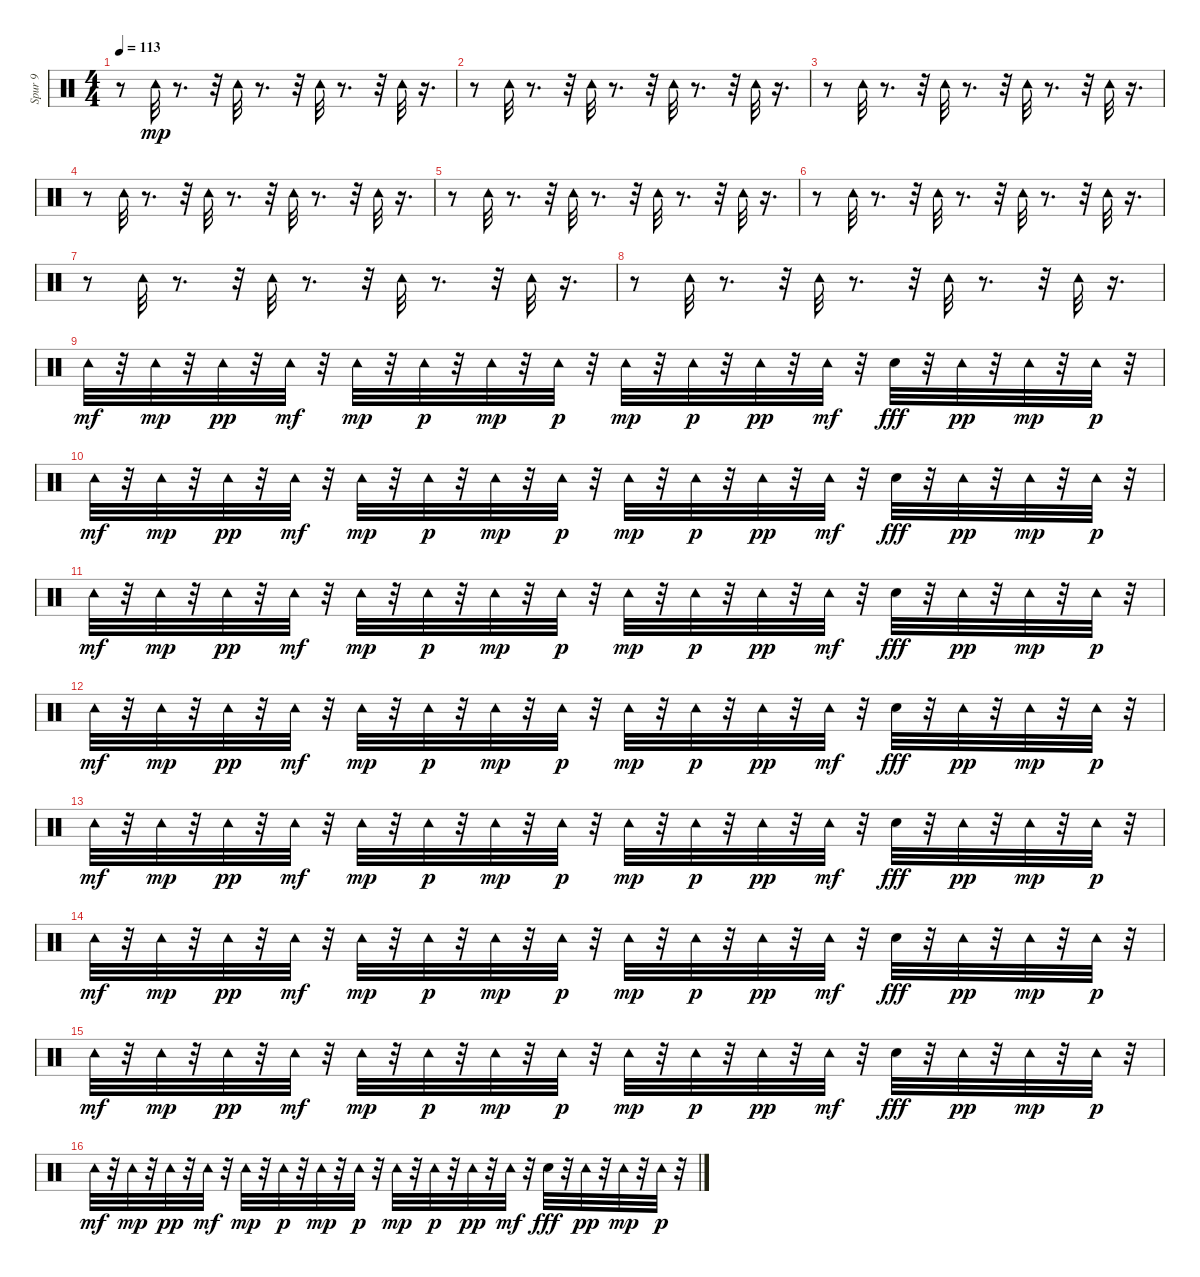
\track ("Spur 9" "Spur 9") {instrument percussion}
\staff {score}
\articulation defaults
\ts (4 4)
\tempo 113
\clef neutral
\ks c
r.8{dy ff} "Tambourine (hit)".32{dy mp} r.8{d} r.32 "Tambourine (hit)".32 r.8{d} r.32 "Tambourine (hit)".32 r.8{d} r.32 "Tambourine (hit)".32 r.16{d} |
r.8 "Tambourine (hit)".32 r.8{d} r.32 "Tambourine (hit)".32 r.8{d} r.32 "Tambourine (hit)".32 r.8{d} r.32 "Tambourine (hit)".32 r.16{d} |
r.8 "Tambourine (hit)".32 r.8{d} r.32 "Tambourine (hit)".32 r.8{d} r.32 "Tambourine (hit)".32 r.8{d} r.32 "Tambourine (hit)".32 r.16{d} |
r.8 "Tambourine (hit)".32 r.8{d} r.32 "Tambourine (hit)".32 r.8{d} r.32 "Tambourine (hit)".32 r.8{d} r.32 "Tambourine (hit)".32 r.16{d} |
r.8 "Tambourine (hit)".32 r.8{d} r.32 "Tambourine (hit)".32 r.8{d} r.32 "Tambourine (hit)".32 r.8{d} r.32 "Tambourine (hit)".32 r.16{d} |
r.8 "Tambourine (hit)".32 r.8{d} r.32 "Tambourine (hit)".32 r.8{d} r.32 "Tambourine (hit)".32 r.8{d} r.32 "Tambourine (hit)".32 r.16{d} |
r.8 "Tambourine (hit)".32 r.8{d} r.32 "Tambourine (hit)".32 r.8{d} r.32 "Tambourine (hit)".32 r.8{d} r.32 "Tambourine (hit)".32 r.16{d} |
r.8 "Tambourine (hit)".32 r.8{d} r.32 "Tambourine (hit)".32 r.8{d} r.32 "Tambourine (hit)".32 r.8{d} r.32 "Tambourine (hit)".32 r.16{d} |
"Tambourine (hit)".32{dy mf} r.32 "Tambourine (hit)".32{dy mp} r.32 "Tambourine (hit)".32{dy pp} r.32 "Tambourine (hit)".32{dy mf} r.32 "Tambourine (hit)".32{dy mp} r.32 "Tambourine (hit)".32{dy p} r.32 "Tambourine (hit)".32{dy mp} r.32 "Tambourine (hit)".32{dy p} r.32 "Tambourine (hit)".32{dy mp} r.32 "Tambourine (hit)".32{dy p} r.32 "Tambourine (hit)".32{dy pp} r.32 "Tambourine (hit)".32{dy mf} r.32 "Hand Clap (hit)".32{dy fff} r.32 "Tambourine (hit)".32{dy pp} r.32 "Tambourine (hit)".32{dy mp} r.32 "Tambourine (hit)".32{dy p} r.32 |
"Tambourine (hit)".32{dy mf} r.32 "Tambourine (hit)".32{dy mp} r.32 "Tambourine (hit)".32{dy pp} r.32 "Tambourine (hit)".32{dy mf} r.32 "Tambourine (hit)".32{dy mp} r.32 "Tambourine (hit)".32{dy p} r.32 "Tambourine (hit)".32{dy mp} r.32 "Tambourine (hit)".32{dy p} r.32 "Tambourine (hit)".32{dy mp} r.32 "Tambourine (hit)".32{dy p} r.32 "Tambourine (hit)".32{dy pp} r.32 "Tambourine (hit)".32{dy mf} r.32 "Hand Clap (hit)".32{dy fff} r.32 "Tambourine (hit)".32{dy pp} r.32 "Tambourine (hit)".32{dy mp} r.32 "Tambourine (hit)".32{dy p} r.32 |
"Tambourine (hit)".32{dy mf} r.32 "Tambourine (hit)".32{dy mp} r.32 "Tambourine (hit)".32{dy pp} r.32 "Tambourine (hit)".32{dy mf} r.32 "Tambourine (hit)".32{dy mp} r.32 "Tambourine (hit)".32{dy p} r.32 "Tambourine (hit)".32{dy mp} r.32 "Tambourine (hit)".32{dy p} r.32 "Tambourine (hit)".32{dy mp} r.32 "Tambourine (hit)".32{dy p} r.32 "Tambourine (hit)".32{dy pp} r.32 "Tambourine (hit)".32{dy mf} r.32 "Hand Clap (hit)".32{dy fff} r.32 "Tambourine (hit)".32{dy pp} r.32 "Tambourine (hit)".32{dy mp} r.32 "Tambourine (hit)".32{dy p} r.32 |
"Tambourine (hit)".32{dy mf} r.32 "Tambourine (hit)".32{dy mp} r.32 "Tambourine (hit)".32{dy pp} r.32 "Tambourine (hit)".32{dy mf} r.32 "Tambourine (hit)".32{dy mp} r.32 "Tambourine (hit)".32{dy p} r.32 "Tambourine (hit)".32{dy mp} r.32 "Tambourine (hit)".32{dy p} r.32 "Tambourine (hit)".32{dy mp} r.32 "Tambourine (hit)".32{dy p} r.32 "Tambourine (hit)".32{dy pp} r.32 "Tambourine (hit)".32{dy mf} r.32 "Hand Clap (hit)".32{dy fff} r.32 "Tambourine (hit)".32{dy pp} r.32 "Tambourine (hit)".32{dy mp} r.32 "Tambourine (hit)".32{dy p} r.32 |
"Tambourine (hit)".32{dy mf} r.32 "Tambourine (hit)".32{dy mp} r.32 "Tambourine (hit)".32{dy pp} r.32 "Tambourine (hit)".32{dy mf} r.32 "Tambourine (hit)".32{dy mp} r.32 "Tambourine (hit)".32{dy p} r.32 "Tambourine (hit)".32{dy mp} r.32 "Tambourine (hit)".32{dy p} r.32 "Tambourine (hit)".32{dy mp} r.32 "Tambourine (hit)".32{dy p} r.32 "Tambourine (hit)".32{dy pp} r.32 "Tambourine (hit)".32{dy mf} r.32 "Hand Clap (hit)".32{dy fff} r.32 "Tambourine (hit)".32{dy pp} r.32 "Tambourine (hit)".32{dy mp} r.32 "Tambourine (hit)".32{dy p} r.32 |
"Tambourine (hit)".32{dy mf} r.32 "Tambourine (hit)".32{dy mp} r.32 "Tambourine (hit)".32{dy pp} r.32 "Tambourine (hit)".32{dy mf} r.32 "Tambourine (hit)".32{dy mp} r.32 "Tambourine (hit)".32{dy p} r.32 "Tambourine (hit)".32{dy mp} r.32 "Tambourine (hit)".32{dy p} r.32 "Tambourine (hit)".32{dy mp} r.32 "Tambourine (hit)".32{dy p} r.32 "Tambourine (hit)".32{dy pp} r.32 "Tambourine (hit)".32{dy mf} r.32 "Hand Clap (hit)".32{dy fff} r.32 "Tambourine (hit)".32{dy pp} r.32 "Tambourine (hit)".32{dy mp} r.32 "Tambourine (hit)".32{dy p} r.32 |
"Tambourine (hit)".32{dy mf} r.32 "Tambourine (hit)".32{dy mp} r.32 "Tambourine (hit)".32{dy pp} r.32 "Tambourine (hit)".32{dy mf} r.32 "Tambourine (hit)".32{dy mp} r.32 "Tambourine (hit)".32{dy p} r.32 "Tambourine (hit)".32{dy mp} r.32 "Tambourine (hit)".32{dy p} r.32 "Tambourine (hit)".32{dy mp} r.32 "Tambourine (hit)".32{dy p} r.32 "Tambourine (hit)".32{dy pp} r.32 "Tambourine (hit)".32{dy mf} r.32 "Hand Clap (hit)".32{dy fff} r.32 "Tambourine (hit)".32{dy pp} r.32 "Tambourine (hit)".32{dy mp} r.32 "Tambourine (hit)".32{dy p} r.32 |
"Tambourine (hit)".32{dy mf} r.32 "Tambourine (hit)".32{dy mp} r.32 "Tambourine (hit)".32{dy pp} r.32 "Tambourine (hit)".32{dy mf} r.32 "Tambourine (hit)".32{dy mp} r.32 "Tambourine (hit)".32{dy p} r.32 "Tambourine (hit)".32{dy mp} r.32 "Tambourine (hit)".32{dy p} r.32 "Tambourine (hit)".32{dy mp} r.32 "Tambourine (hit)".32{dy p} r.32 "Tambourine (hit)".32{dy pp} r.32 "Tambourine (hit)".32{dy mf} r.32 "Hand Clap (hit)".32{dy fff} r.32 "Tambourine (hit)".32{dy pp} r.32 "Tambourine (hit)".32{dy mp} r.32 "Tambourine (hit)".32{dy p} r.32
